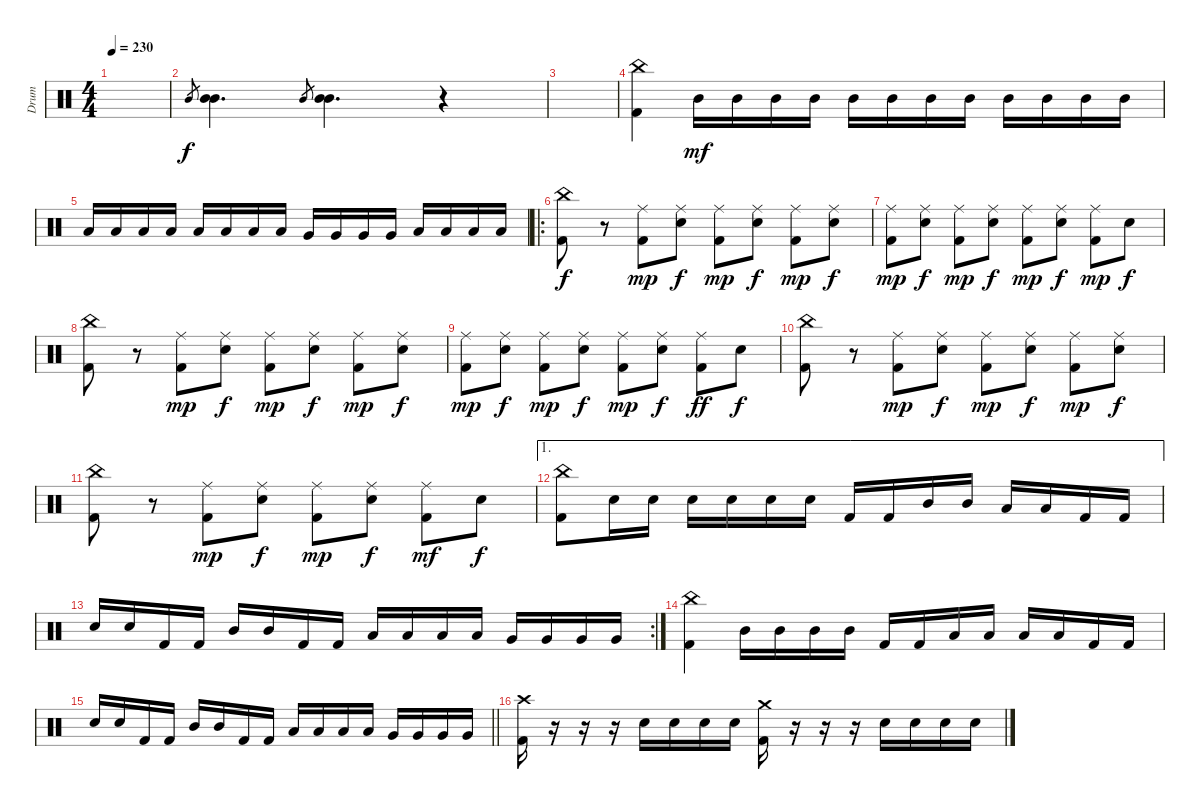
\track ("Drum" "Drum") {instrument percussion}
\staff {score}
\articulation defaults
\ts (4 4)
\tempo 230
\clef neutral
\ks c
|
"Mid Tom (hit)".8{gr} ("Mid Tom (hit)" "Mid Tom (hit)").4{d} "Mid Tom (hit)".8{gr} ("Mid Tom (hit)" "Mid Tom (hit)").4{d} r.4 |
|
("China (hit)" "Kick (hit) 2").4 "Mid Tom (hit)".16{dy mf} "Mid Tom (hit)".16 "Mid Tom (hit)".16 "Mid Tom (hit)".16 "Mid Tom (hit)".16 "Mid Tom (hit)".16 "Mid Tom (hit)".16 "Mid Tom (hit)".16 "Mid Tom (hit)".16 "Mid Tom (hit)".16 "Mid Tom (hit)".16 "Mid Tom (hit)".16 |
"Low Tom (hit)".16 "Low Tom (hit)".16 "Low Tom (hit)".16 "Low Tom (hit)".16 "Low Tom (hit)".16 "Low Tom (hit)".16 "Low Tom (hit)".16 "Low Tom (hit)".16 "Very Low Tom (hit)".16 "Very Low Tom (hit)".16 "Very Low Tom (hit)".16 "Very Low Tom (hit)".16 "Low Floor Tom (hit)".16 "Low Floor Tom (hit)".16 "Low Floor Tom (hit)".16 "Low Floor Tom (hit)".16 |
\ro
("China (hit)" "Kick (hit) 2").8{dy f} r.8 ("Ride (middle)" "Kick (hit) 2").8{dy mp} ("Ride (middle)" "Electric Snare (hit)").8{dy f} ("Ride (middle)" "Kick (hit) 2").8{dy mp} ("Ride (middle)" "Electric Snare (hit)").8{dy f} ("Ride (middle)" "Kick (hit) 2").8{dy mp} ("Ride (middle)" "Electric Snare (hit)").8{dy f} |
("Ride (middle)" "Kick (hit) 2").8{dy mp} ("Ride (middle)" "Electric Snare (hit)").8{dy f} ("Ride (middle)" "Kick (hit) 2").8{dy mp} ("Ride (middle)" "Electric Snare (hit)").8{dy f} ("Ride (middle)" "Kick (hit) 2").8{dy mp} ("Ride (middle)" "Electric Snare (hit)").8{dy f} ("Ride (middle)" "Kick (hit) 2").8{dy mp} "Electric Snare (hit)".8{dy f} |
("China (hit)" "Kick (hit) 2").8 r.8 ("Ride (middle)" "Kick (hit) 2").8{dy mp} ("Ride (middle)" "Electric Snare (hit)").8{dy f} ("Ride (middle)" "Kick (hit) 2").8{dy mp} ("Ride (middle)" "Electric Snare (hit)").8{dy f} ("Ride (middle)" "Kick (hit) 2").8{dy mp} ("Ride (middle)" "Electric Snare (hit)").8{dy f} |
("Ride (middle)" "Kick (hit) 2").8{dy mp} ("Ride (middle)" "Electric Snare (hit)").8{dy f} ("Ride (middle)" "Kick (hit) 2").8{dy mp} ("Ride (middle)" "Electric Snare (hit)").8{dy f} ("Ride (middle)" "Kick (hit) 2").8{dy mp} ("Ride (middle)" "Electric Snare (hit)").8{dy f} ("Ride (middle)" "Kick (hit) 2").8{dy ff} "Electric Snare (hit)".8{dy f} |
("China (hit)" "Kick (hit) 2").8 r.8 ("Ride (middle)" "Kick (hit) 2").8{dy mp} ("Ride (middle)" "Electric Snare (hit)").8{dy f} ("Ride (middle)" "Kick (hit) 2").8{dy mp} ("Ride (middle)" "Electric Snare (hit)").8{dy f} ("Ride (middle)" "Kick (hit) 2").8{dy mp} ("Ride (middle)" "Electric Snare (hit)").8{dy f} |
("China (hit)" "Kick (hit) 2").8 r.8 ("Ride (middle)" "Kick (hit) 2").8{dy mp} ("Ride (middle)" "Electric Snare (hit)").8{dy f} ("Ride (middle)" "Kick (hit) 2").8{dy mp} ("Ride (middle)" "Electric Snare (hit)").8{dy f} ("Ride (middle)" "Kick (hit) 2").8{dy mf} "Electric Snare (hit)".8{dy f} |
\ae 1
("China (hit)" "Kick (hit) 2").8 "Electric Snare (hit)".16 "Electric Snare (hit)".16 "Electric Snare (hit)".16 "Electric Snare (hit)".16 "Electric Snare (hit)".16 "Electric Snare (hit)".16 "Kick (hit) 2".16 "Kick (hit) 2".16 "Mid Tom (hit)".16 "Mid Tom (hit)".16 "Low Tom (hit)".16 "Low Tom (hit)".16 "Kick (hit) 2".16 "Kick (hit) 2".16 |
\rc 2 "Electric Snare (hit)".16 "Electric Snare (hit)".16 "Kick (hit) 2".16 "Kick (hit) 2".16 "Mid Tom (hit)".16 "Mid Tom (hit)".16 "Kick (hit) 2".16 "Kick (hit) 2".16 "Low Tom (hit)".16 "Low Tom (hit)".16 "Low Tom (hit)".16 "Low Tom (hit)".16 "Very Low Tom (hit)".16 "Very Low Tom (hit)".16 "Very Low Tom (hit)".16 "Very Low Tom (hit)".16
|
("China (hit)" "Kick (hit) 2").4 "Mid Tom (hit)".16 "Mid Tom (hit)".16 "Mid Tom (hit)".16 "Mid Tom (hit)".16 "Kick (hit) 2".16 "Kick (hit) 2".16 "Low Tom (hit)".16 "Low Tom (hit)".16 "Low Tom (hit)".16 "Low Tom (hit)".16 "Kick (hit) 2".16 "Kick (hit) 2".16 |
\barLineRight lightlight "Electric Snare (hit)".16 "Electric Snare (hit)".16 "Kick (hit) 2".16 "Kick (hit) 2".16 "Mid Tom (hit)".16 "Mid Tom (hit)".16 "Kick (hit) 2".16 "Kick (hit) 2".16 "Low Tom (hit)".16 "Low Tom (hit)".16 "Low Tom (hit)".16 "Low Tom (hit)".16 "Very Low Tom (hit)".16 "Very Low Tom (hit)".16 "Very Low Tom (hit)".16 "Very Low Tom (hit)".16
|
("Crash high (hit)" "Kick (hit) 2").16 r.16 r.16 r.16 "Electric Snare (hit)".16 "Electric Snare (hit)".16 "Electric Snare (hit)".16 "Electric Snare (hit)".16 ("Crash medium (hit)" "Kick (hit) 2").16 r.16 r.16 r.16 "Electric Snare (hit)".16 "Electric Snare (hit)".16 "Electric Snare (hit)".16 "Electric Snare (hit)".16
